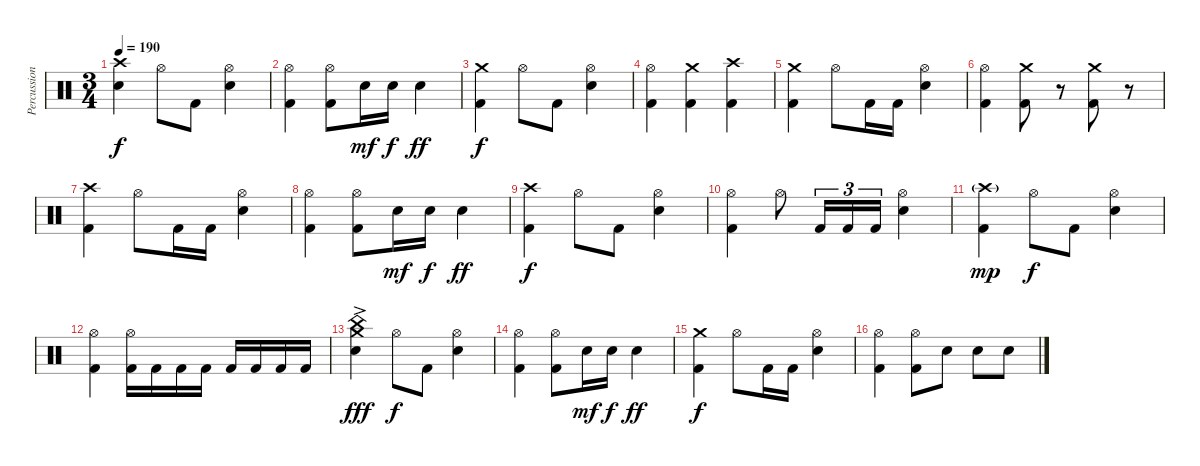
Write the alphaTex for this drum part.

\track ("Percussion" "Percussion") {instrument percussion}
\staff {score}
\articulation defaults
\ts (3 4)
\tempo 190
\clef neutral
\ks c
("Crash high (hit)" "Electric Snare (hit)").4{dy f} "Hi-Hat (open)".8 "Kick (hit) 2".8 ("Hi-Hat (open)" "Electric Snare (hit)").4 |
("Hi-Hat (open)" "Kick (hit) 2").4 ("Hi-Hat (open)" "Kick (hit) 2").8 "Electric Snare (hit)".16{dy mf} "Electric Snare (hit)".16{dy f} "Electric Snare (hit)".4{dy ff} |
("Crash medium (hit)" "Kick (hit) 2").4{dy f} "Hi-Hat (open)".8 "Kick (hit) 2".8 ("Hi-Hat (open)" "Electric Snare (hit)").4 |
("Hi-Hat (open)" "Kick (hit) 2").4 ("Crash medium (hit)" "Kick (hit) 2").4 ("Crash high (hit)" "Kick (hit) 2").4 |
("Crash medium (hit)" "Kick (hit) 2").4 "Hi-Hat (open)".8 "Kick (hit) 2".16 "Kick (hit) 2".16 ("Hi-Hat (open)" "Electric Snare (hit)").4 |
("Hi-Hat (open)" "Kick (hit) 2").4 ("Crash medium (hit)" "Kick (hit) 2").8 r.8{volume 0} ("Crash medium (hit)" "Kick (hit) 2").8{volume 13} r.8{volume 0} |
("Crash high (hit)" "Kick (hit) 2").4{volume 13} "Hi-Hat (open)".8 "Kick (hit) 2".16 "Kick (hit) 2".16 ("Hi-Hat (open)" "Electric Snare (hit)").4 |
("Hi-Hat (open)" "Kick (hit) 2").4 ("Hi-Hat (open)" "Kick (hit) 2").8 "Electric Snare (hit)".16{dy mf} "Electric Snare (hit)".16{dy f} "Electric Snare (hit)".4{dy ff} |
("Crash high (hit)" "Kick (hit) 2").4{dy f} "Hi-Hat (open)".8 "Kick (hit) 2".8 ("Hi-Hat (open)" "Electric Snare (hit)").4 |
("Hi-Hat (open)" "Kick (hit) 2").4 "Hi-Hat (open)".8 "Kick (hit) 2".16{tu (3 2)} "Kick (hit) 2".16{tu (3 2)} "Kick (hit) 2".16{tu (3 2)} ("Hi-Hat (open)" "Electric Snare (hit)").4 |
("Crash high (hit)"{g} "Kick (hit) 2").4{dy mp} "Hi-Hat (open)".8{dy f} "Kick (hit) 2".8 ("Hi-Hat (open)" "Electric Snare (hit)").4 |
("Hi-Hat (open)" "Kick (hit) 2").4 ("Hi-Hat (open)" "Kick (hit) 2").16 "Kick (hit) 2".16 "Kick (hit) 2".16 "Kick (hit) 2".16 "Kick (hit) 2".16 "Kick (hit) 2".16 "Kick (hit) 2".16 "Kick (hit) 2".16 |
("China (hit)"{ac} "Crash medium (hit)" "Electric Snare (hit)").4{dy fff} "Hi-Hat (open)".8{dy f} "Kick (hit) 2".8 ("Hi-Hat (open)" "Electric Snare (hit)").4 |
("Hi-Hat (open)" "Kick (hit) 2").4 ("Hi-Hat (open)" "Kick (hit) 2").8 "Electric Snare (hit)".16{dy mf} "Electric Snare (hit)".16{dy f} "Electric Snare (hit)".4{dy ff} |
("Crash medium (hit)" "Kick (hit) 2").4{dy f} "Hi-Hat (open)".8 "Kick (hit) 2".16 "Kick (hit) 2".16 ("Hi-Hat (open)" "Electric Snare (hit)").4 |
("Hi-Hat (open)" "Kick (hit) 2").4 ("Hi-Hat (open)" "Kick (hit) 2").8 "Electric Snare (hit)".8 "Electric Snare (hit)".8 "Electric Snare (hit)".8
